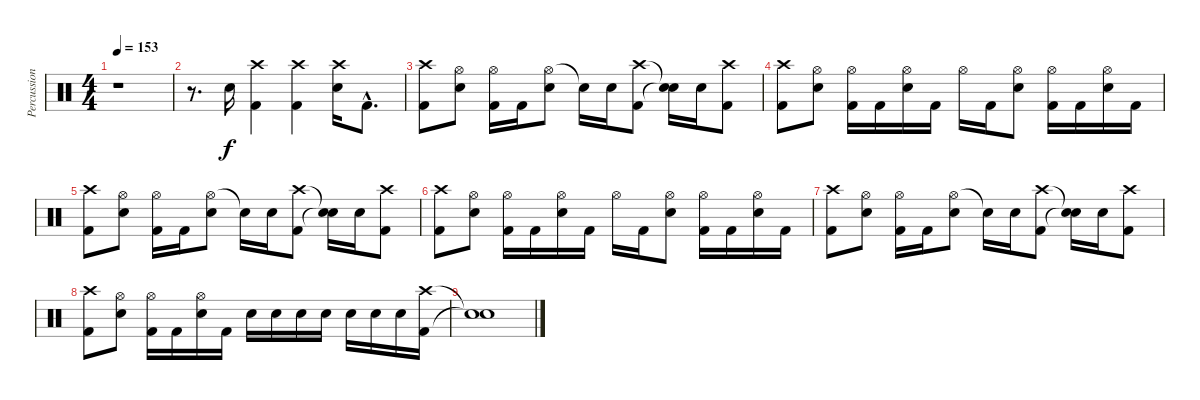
\track ("Percussion" "Percussion") {instrument percussion}
\staff {score}
\articulation defaults
\ts (4 4)
\tempo 153
\clef neutral
\ks c
r.1{dy f} |
r.8{d} "Snare (hit) 2".16 ("Crash high (hit)" "Kick (hit) 2").4 ("Crash high (hit)" "Kick (hit) 2").4 ("Crash high (hit)" "Snare (hit) 2").16 "Kick (hit) 2"{hac}.8{d} |
("Crash high (hit)" "Kick (hit) 2").8 ("Hi-Hat (open)" "Snare (hit) 2").8 ("Hi-Hat (open)" "Kick (hit) 2").16 "Kick (hit) 2".16 ("Hi-Hat (open)" "Snare (hit) 2").8 "Snare (hit)"{t}.16 "Snare (hit) 2".16 ("Crash high (hit)" "Kick (hit) 2").8 ("Snare (hit)"{t} "Snare (hit)"{t}).16 "Snare (hit) 2".16 ("Crash high (hit)" "Kick (hit) 2").8 |
("Crash high (hit)" "Kick (hit) 2").8 ("Hi-Hat (open)" "Snare (hit) 2").8 ("Hi-Hat (open)" "Kick (hit) 2").16 "Kick (hit) 2".16 ("Hi-Hat (open)" "Snare (hit) 2").16 "Kick (hit) 2".16 "Hi-Hat (open)".16 "Kick (hit) 2".16 ("Hi-Hat (open)" "Snare (hit) 2").8 ("Hi-Hat (open)" "Kick (hit) 2").16 "Kick (hit) 2".16 ("Hi-Hat (open)" "Snare (hit) 2").16 "Kick (hit) 2".16 |
("Crash high (hit)" "Kick (hit) 2").8 ("Hi-Hat (open)" "Snare (hit) 2").8 ("Hi-Hat (open)" "Kick (hit) 2").16 "Kick (hit) 2".16 ("Hi-Hat (open)" "Snare (hit) 2").8 "Snare (hit)"{t}.16 "Snare (hit) 2".16 ("Crash high (hit)" "Kick (hit) 2").8 ("Snare (hit)"{t} "Snare (hit)"{t}).16 "Snare (hit) 2".16 ("Crash high (hit)" "Kick (hit) 2").8 |
("Crash high (hit)" "Kick (hit) 2").8 ("Hi-Hat (open)" "Snare (hit) 2").8 ("Hi-Hat (open)" "Kick (hit) 2").16 "Kick (hit) 2".16 ("Hi-Hat (open)" "Snare (hit) 2").16 "Kick (hit) 2".16 "Hi-Hat (open)".16 "Kick (hit) 2".16 ("Hi-Hat (open)" "Snare (hit) 2").8 ("Hi-Hat (open)" "Kick (hit) 2").16 "Kick (hit) 2".16 ("Hi-Hat (open)" "Snare (hit) 2").16 "Kick (hit) 2".16 |
("Crash high (hit)" "Kick (hit) 2").8 ("Hi-Hat (open)" "Snare (hit) 2").8 ("Hi-Hat (open)" "Kick (hit) 2").16 "Kick (hit) 2".16 ("Hi-Hat (open)" "Snare (hit) 2").8 "Snare (hit)"{t}.16 "Snare (hit) 2".16 ("Crash high (hit)" "Kick (hit) 2").8 ("Snare (hit)"{t} "Snare (hit)"{t}).16 "Snare (hit) 2".16 ("Crash high (hit)" "Kick (hit) 2").8 |
("Crash high (hit)" "Kick (hit) 2").8 ("Hi-Hat (open)" "Snare (hit) 2").8 ("Hi-Hat (open)" "Kick (hit) 2").16 "Kick (hit) 2".16 ("Hi-Hat (open)" "Snare (hit) 2").16 "Kick (hit) 2".16 "Snare (hit) 2".16 "Snare (hit) 2".16 "Snare (hit) 2".16 "Snare (hit) 2".16 "Snare (hit) 2".16 "Snare (hit) 2".16 "Snare (hit) 2".16 ("Crash high (hit)" "Kick (hit) 2").16 |
("Snare (hit)"{t} "Snare (hit)"{t}).1
